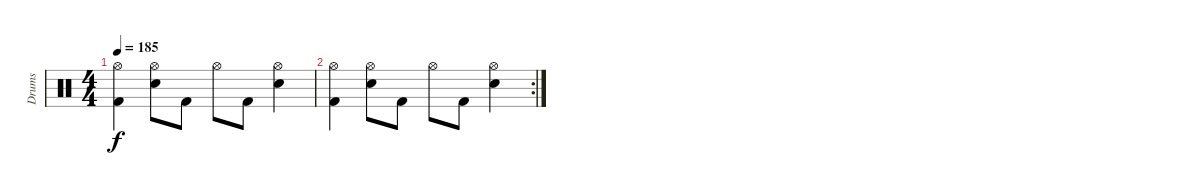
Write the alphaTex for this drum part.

\track ("Drums" "Drums") {instrument percussion}
\staff {score}
\articulation defaults
\ts (4 4)
\tempo 185
\clef neutral
\ks c
("Kick (hit) 2" "Hi-Hat (open)").4{dy f} ("Electric Snare (hit)" "Hi-Hat (open)").8 "Kick (hit) 2".8 "Hi-Hat (open)".8 "Kick (hit) 2".8 ("Electric Snare (hit)" "Hi-Hat (open)").4 |
\rc 2
("Kick (hit) 2" "Hi-Hat (open)").4 ("Electric Snare (hit)" "Hi-Hat (open)").8 "Kick (hit) 2".8 "Hi-Hat (open)".8 "Kick (hit) 2".8 ("Electric Snare (hit)" "Hi-Hat (open)").4
